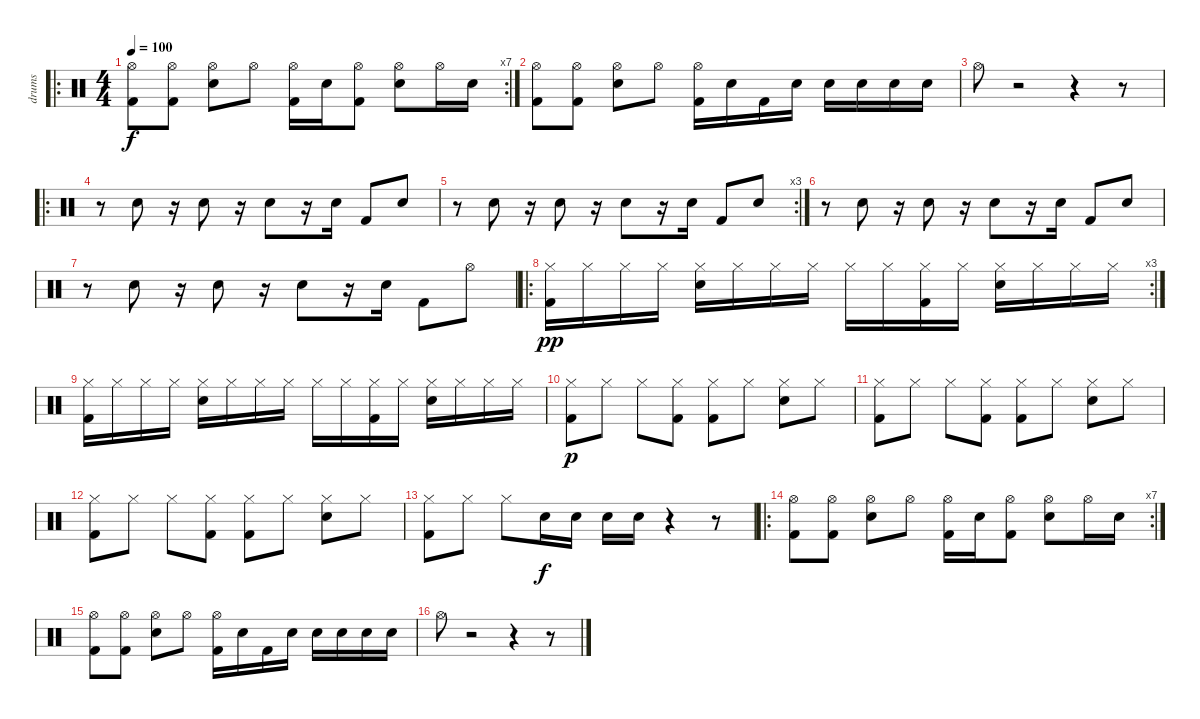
\track ("drums" "drums") {instrument percussion}
\staff {score}
\articulation defaults
\ro
\rc 7
\ts (4 4)
\tempo 100
\clef neutral
\ks c
("Hi-Hat (open)" "Kick (hit) 2").8{dy f} ("Hi-Hat (open)" "Kick (hit) 2").8 ("Hi-Hat (open)" "Electric Snare (hit)").8 "Hi-Hat (open)".8 ("Hi-Hat (open)" "Kick (hit) 2").16 "Electric Snare (hit)".16 ("Hi-Hat (open)" "Kick (hit) 2").8 ("Hi-Hat (open)" "Electric Snare (hit)").8 "Hi-Hat (open)".16 "Electric Snare (hit)".16 |
("Hi-Hat (open)" "Kick (hit) 2").8 ("Hi-Hat (open)" "Kick (hit) 2").8 ("Hi-Hat (open)" "Electric Snare (hit)").8 "Hi-Hat (open)".8 ("Hi-Hat (open)" "Kick (hit) 2").16 "Electric Snare (hit)".16 "Kick (hit) 2".16 "Electric Snare (hit)".16 "Electric Snare (hit)".16 "Electric Snare (hit)".16 "Electric Snare (hit)".16 "Electric Snare (hit)".16 |
"Hi-Hat (open)".8 r.2 r.4 r.8 |
\ro
r.8 "Electric Snare (hit)".8 r.16 "Electric Snare (hit)".8 r.16 "Electric Snare (hit)".8 r.16 "Electric Snare (hit)".16 "Kick (hit) 2".8 "Electric Snare (hit)".8 |
\rc 3
r.8 "Electric Snare (hit)".8 r.16 "Electric Snare (hit)".8 r.16 "Electric Snare (hit)".8 r.16 "Electric Snare (hit)".16 "Kick (hit) 2".8 "Electric Snare (hit)".8 |
r.8 "Electric Snare (hit)".8 r.16 "Electric Snare (hit)".8 r.16 "Electric Snare (hit)".8 r.16 "Electric Snare (hit)".16 "Kick (hit) 2".8 "Electric Snare (hit)".8 |
r.8 "Electric Snare (hit)".8 r.16 "Electric Snare (hit)".8 r.16 "Electric Snare (hit)".8 r.16 "Electric Snare (hit)".16 "Kick (hit) 2".8 "Hi-Hat (open)".8 |
\ro
\rc 3
("Hi-Hat (closed)" "Kick (hit) 2").16{dy pp} "Hi-Hat (closed)".16 "Hi-Hat (closed)".16 "Hi-Hat (closed)".16 ("Hi-Hat (closed)" "Electric Snare (hit)").16 "Hi-Hat (closed)".16 "Hi-Hat (closed)".16 "Hi-Hat (closed)".16 "Hi-Hat (closed)".16 "Hi-Hat (closed)".16 ("Hi-Hat (closed)" "Kick (hit) 2").16 "Hi-Hat (closed)".16 ("Hi-Hat (closed)" "Electric Snare (hit)").16 "Hi-Hat (closed)".16 "Hi-Hat (closed)".16 "Hi-Hat (closed)".16 |
("Hi-Hat (closed)" "Kick (hit) 2").16 "Hi-Hat (closed)".16 "Hi-Hat (closed)".16 "Hi-Hat (closed)".16 ("Hi-Hat (closed)" "Electric Snare (hit)").16 "Hi-Hat (closed)".16 "Hi-Hat (closed)".16 "Hi-Hat (closed)".16 "Hi-Hat (closed)".16 "Hi-Hat (closed)".16 ("Hi-Hat (closed)" "Kick (hit) 2").16 "Hi-Hat (closed)".16 ("Hi-Hat (closed)" "Electric Snare (hit)").16 "Hi-Hat (closed)".16 "Hi-Hat (closed)".16 "Hi-Hat (closed)".16 |
("Hi-Hat (closed)" "Kick (hit) 2").8{dy p} "Hi-Hat (closed)".8 "Hi-Hat (closed)".8 ("Hi-Hat (closed)" "Kick (hit) 2").8 ("Hi-Hat (closed)" "Kick (hit) 2").8 "Hi-Hat (closed)".8 ("Hi-Hat (closed)" "Electric Snare (hit)").8 "Hi-Hat (closed)".8 |
("Hi-Hat (closed)" "Kick (hit) 2").8 "Hi-Hat (closed)".8 "Hi-Hat (closed)".8 ("Hi-Hat (closed)" "Kick (hit) 2").8 ("Hi-Hat (closed)" "Kick (hit) 2").8 "Hi-Hat (closed)".8 ("Hi-Hat (closed)" "Electric Snare (hit)").8 "Hi-Hat (closed)".8 |
("Hi-Hat (closed)" "Kick (hit) 2").8 "Hi-Hat (closed)".8 "Hi-Hat (closed)".8 ("Hi-Hat (closed)" "Kick (hit) 2").8 ("Hi-Hat (closed)" "Kick (hit) 2").8 "Hi-Hat (closed)".8 ("Hi-Hat (closed)" "Electric Snare (hit)").8 "Hi-Hat (closed)".8 |
("Hi-Hat (closed)" "Kick (hit) 2").8 "Hi-Hat (closed)".8 "Hi-Hat (closed)".8 "Electric Snare (hit)".16{dy f} "Electric Snare (hit)".16 "Electric Snare (hit)".16 "Electric Snare (hit)".16 r.4 r.8 |
\ro
\rc 7
("Hi-Hat (open)" "Kick (hit) 2").8 ("Hi-Hat (open)" "Kick (hit) 2").8 ("Hi-Hat (open)" "Electric Snare (hit)").8 "Hi-Hat (open)".8 ("Hi-Hat (open)" "Kick (hit) 2").16 "Electric Snare (hit)".16 ("Hi-Hat (open)" "Kick (hit) 2").8 ("Hi-Hat (open)" "Electric Snare (hit)").8 "Hi-Hat (open)".16 "Electric Snare (hit)".16 |
("Hi-Hat (open)" "Kick (hit) 2").8 ("Hi-Hat (open)" "Kick (hit) 2").8 ("Hi-Hat (open)" "Electric Snare (hit)").8 "Hi-Hat (open)".8 ("Hi-Hat (open)" "Kick (hit) 2").16 "Electric Snare (hit)".16 "Kick (hit) 2".16 "Electric Snare (hit)".16 "Electric Snare (hit)".16 "Electric Snare (hit)".16 "Electric Snare (hit)".16 "Electric Snare (hit)".16 |
"Hi-Hat (open)".8 r.2 r.4 r.8
